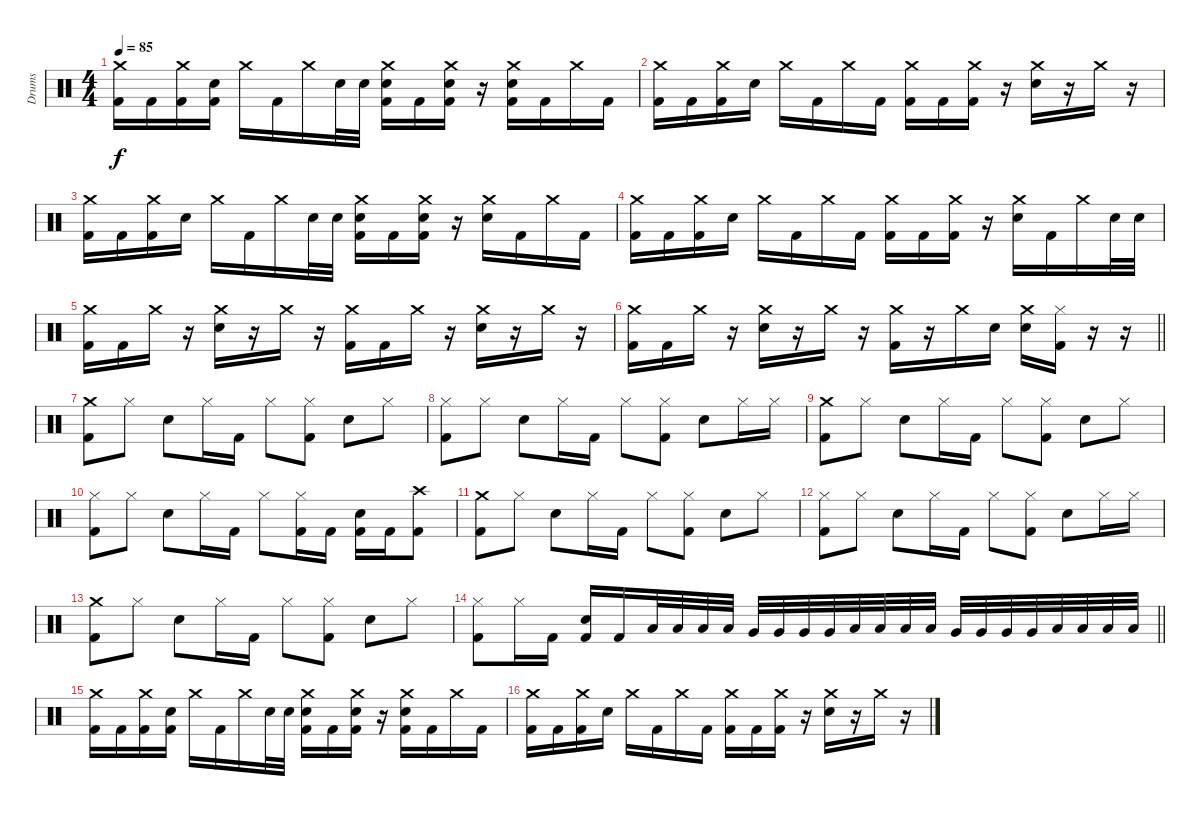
\track ("Drums" "Drums") {instrument percussion}
\staff {score}
\articulation defaults
\ts (4 4)
\tempo 85
\clef neutral
\ks c
("Crash medium (hit)" "Kick (hit) 2").16{dy f} "Kick (hit) 2".16 ("Crash medium (hit)" "Kick (hit) 2").16 ("Snare (hit) 2" "Kick (hit) 2").16 "Crash medium (hit)".16 "Kick (hit) 2".16 "Crash medium (hit)".16 "Snare (hit) 2".32 "Snare (hit) 2".32 ("Crash medium (hit)" "Snare (hit) 2" "Kick (hit) 2").16 "Kick (hit) 2".16 ("Crash medium (hit)" "Snare (hit) 2" "Kick (hit) 2").16 r.16 ("Crash medium (hit)" "Snare (hit) 2" "Kick (hit) 2").16 "Kick (hit) 2".16 "Crash medium (hit)".16 "Kick (hit) 2".16 |
("Crash medium (hit)" "Kick (hit) 2").16 "Kick (hit) 2".16 ("Crash medium (hit)" "Kick (hit) 2").16 "Snare (hit) 2".16 "Crash medium (hit)".16 "Kick (hit) 2".16 "Crash medium (hit)".16 "Kick (hit) 2".16 ("Crash medium (hit)" "Kick (hit) 2").16 "Kick (hit) 2".16 ("Crash medium (hit)" "Kick (hit) 2").16 r.16 ("Crash medium (hit)" "Snare (hit) 2").16 r.16 "Crash medium (hit)".16 r.16 |
("Crash medium (hit)" "Kick (hit) 2").16 "Kick (hit) 2".16 ("Crash medium (hit)" "Kick (hit) 2").16 "Snare (hit) 2".16 "Crash medium (hit)".16 "Kick (hit) 2".16 "Crash medium (hit)".16 "Snare (hit) 2".32 "Snare (hit) 2".32 ("Crash medium (hit)" "Snare (hit) 2" "Kick (hit) 2").16 "Kick (hit) 2".16 ("Crash medium (hit)" "Snare (hit) 2" "Kick (hit) 2").16 r.16 ("Crash medium (hit)" "Snare (hit) 2").16 "Kick (hit) 2".16 "Crash medium (hit)".16 "Kick (hit) 2".16 |
("Crash medium (hit)" "Kick (hit) 2").16 "Kick (hit) 2".16 ("Crash medium (hit)" "Kick (hit) 2").16 "Snare (hit) 2".16 "Crash medium (hit)".16 "Kick (hit) 2".16 "Crash medium (hit)".16 "Kick (hit) 2".16 ("Crash medium (hit)" "Kick (hit) 2").16 "Kick (hit) 2".16 ("Crash medium (hit)" "Kick (hit) 2").16 r.16 ("Crash medium (hit)" "Snare (hit) 2").16 "Kick (hit) 2".16 "Crash medium (hit)".16 "Snare (hit) 2".32 "Snare (hit) 2".32 |
("Crash medium (hit)" "Kick (hit) 2").16 "Kick (hit) 2".16 "Crash medium (hit)".16 r.16 ("Crash medium (hit)" "Snare (hit) 2").16 r.16 "Crash medium (hit)".16 r.16 ("Crash medium (hit)" "Kick (hit) 2").16 "Kick (hit) 2".16 "Crash medium (hit)".16 r.16 ("Crash medium (hit)" "Snare (hit) 2").16 r.16 "Crash medium (hit)".16 r.16 |
\barLineRight lightlight
("Crash medium (hit)" "Kick (hit) 2").16 "Kick (hit) 2".16 "Crash medium (hit)".16 r.16 ("Crash medium (hit)" "Snare (hit) 2").16 r.16 "Crash medium (hit)".16 r.16 ("Crash medium (hit)" "Kick (hit) 2").16 r.16 "Crash medium (hit)".16 "Snare (hit) 2".16 ("Crash medium (hit)" "Snare (hit) 2").16 ("Hi-Hat (closed)" "Kick (hit) 2").16 r.16 r.16 |
("Crash medium (hit)" "Kick (hit) 2").8 "Hi-Hat (closed)".8 "Snare (hit) 2".8 "Hi-Hat (closed)".16 "Kick (hit) 2".16 "Hi-Hat (closed)".8 ("Hi-Hat (closed)" "Kick (hit) 2").8 "Snare (hit) 2".8 "Hi-Hat (closed)".8 |
("Hi-Hat (closed)" "Kick (hit) 2").8 "Hi-Hat (closed)".8 "Snare (hit) 2".8 "Hi-Hat (closed)".16 "Kick (hit) 2".16 "Hi-Hat (closed)".8 ("Hi-Hat (closed)" "Kick (hit) 2").8 "Snare (hit) 2".8 "Hi-Hat (closed)".16 "Hi-Hat (closed)".16 |
("Crash medium (hit)" "Kick (hit) 2").8 "Hi-Hat (closed)".8 "Snare (hit) 2".8 "Hi-Hat (closed)".16 "Kick (hit) 2".16 "Hi-Hat (closed)".8 ("Hi-Hat (closed)" "Kick (hit) 2").8 "Snare (hit) 2".8 "Hi-Hat (closed)".8 |
("Hi-Hat (closed)" "Kick (hit) 2").8 "Hi-Hat (closed)".8 "Snare (hit) 2".8 "Hi-Hat (closed)".16 "Kick (hit) 2".16 "Hi-Hat (closed)".8 ("Hi-Hat (closed)" "Kick (hit) 2").16 "Kick (hit) 2".16 ("Snare (hit) 2" "Kick (hit) 2").16 "Kick (hit) 2".16 ("Crash high (hit)" "Kick (hit) 2").8 |
("Crash medium (hit)" "Kick (hit) 2").8 "Hi-Hat (closed)".8 "Snare (hit) 2".8 "Hi-Hat (closed)".16 "Kick (hit) 2".16 "Hi-Hat (closed)".8 ("Hi-Hat (closed)" "Kick (hit) 2").8 "Snare (hit) 2".8 "Hi-Hat (closed)".8 |
("Hi-Hat (closed)" "Kick (hit) 2").8 "Hi-Hat (closed)".8 "Snare (hit) 2".8 "Hi-Hat (closed)".16 "Kick (hit) 2".16 "Hi-Hat (closed)".8 ("Hi-Hat (closed)" "Kick (hit) 2").8 "Snare (hit) 2".8 "Hi-Hat (closed)".16 "Hi-Hat (closed)".16 |
("Crash medium (hit)" "Kick (hit) 2").8 "Hi-Hat (closed)".8 "Snare (hit) 2".8 "Hi-Hat (closed)".16 "Kick (hit) 2".16 "Hi-Hat (closed)".8 ("Hi-Hat (closed)" "Kick (hit) 2").8 "Snare (hit) 2".8 "Hi-Hat (closed)".8 |
\barLineRight lightlight
("Hi-Hat (closed)" "Kick (hit) 2").8 "Hi-Hat (closed)".16 "Kick (hit) 2".16 ("Snare (hit) 2" "Kick (hit) 2").16 "Kick (hit) 2".16 "Low Tom (hit)".32 "Low Tom (hit)".32 "Low Tom (hit)".32 "Low Tom (hit)".32 "Very Low Tom (hit)".32 "Very Low Tom (hit)".32 "Very Low Tom (hit)".32 "Very Low Tom (hit)".32 "Low Floor Tom (hit)".32 "Low Floor Tom (hit)".32 "Low Floor Tom (hit)".32 "Low Floor Tom (hit)".32 "Very Low Tom (hit)".32 "Very Low Tom (hit)".32 "Very Low Tom (hit)".32 "Very Low Tom (hit)".32 "Low Floor Tom (hit)".32 "Low Floor Tom (hit)".32 "Low Floor Tom (hit)".32 "Low Floor Tom (hit)".32 |
("Crash medium (hit)" "Kick (hit) 2").16 "Kick (hit) 2".16 ("Crash medium (hit)" "Kick (hit) 2").16 ("Snare (hit) 2" "Kick (hit) 2").16 "Crash medium (hit)".16 "Kick (hit) 2".16 "Crash medium (hit)".16 "Snare (hit) 2".32 "Snare (hit) 2".32 ("Crash medium (hit)" "Snare (hit) 2" "Kick (hit) 2").16 "Kick (hit) 2".16 ("Crash medium (hit)" "Snare (hit) 2" "Kick (hit) 2").16 r.16 ("Crash medium (hit)" "Snare (hit) 2" "Kick (hit) 2").16 "Kick (hit) 2".16 "Crash medium (hit)".16 "Kick (hit) 2".16 |
("Crash medium (hit)" "Kick (hit) 2").16 "Kick (hit) 2".16 ("Crash medium (hit)" "Kick (hit) 2").16 "Snare (hit) 2".16 "Crash medium (hit)".16 "Kick (hit) 2".16 "Crash medium (hit)".16 "Kick (hit) 2".16 ("Crash medium (hit)" "Kick (hit) 2").16 "Kick (hit) 2".16 ("Crash medium (hit)" "Kick (hit) 2").16 r.16 ("Crash medium (hit)" "Snare (hit) 2").16 r.16 "Crash medium (hit)".16 r.16
